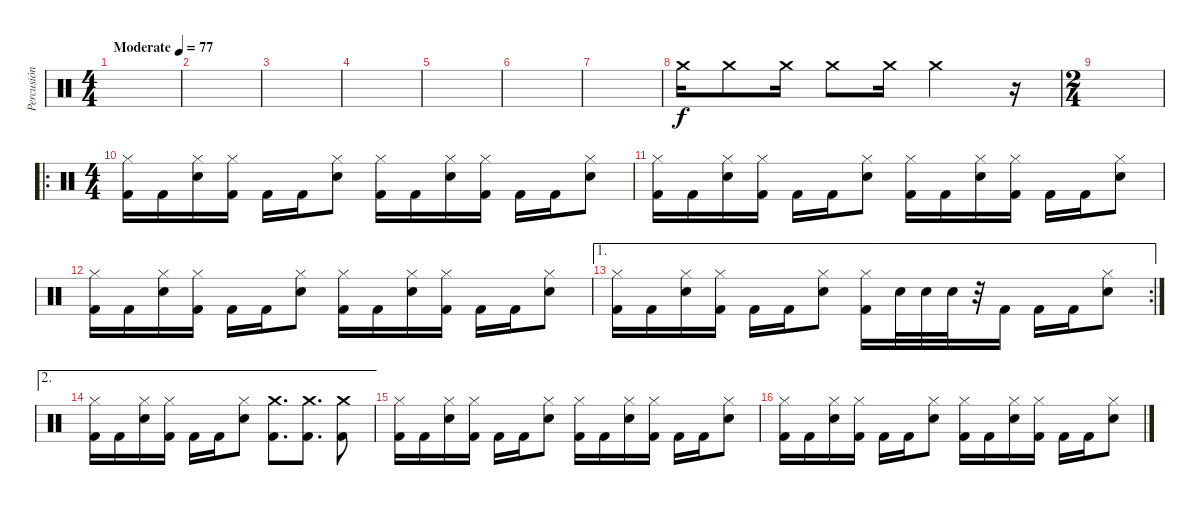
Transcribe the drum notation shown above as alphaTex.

\track ("Percusión" "Percusión") {instrument percussion}
\staff {score}
\articulation defaults
\ts (4 4)
\tempo (77 "Moderate")
\clef neutral
\ks c
|
|
|
|
|
|
|
"Crash medium (hit)".16 "Crash medium (hit)".8 "Crash medium (hit)".16 "Crash medium (hit)".8 "Crash medium (hit)".16 "Crash medium (hit)".2 r.16 |
\ts (2 4)
|
\ro
\ts (4 4)
("Kick (hit) 2" "Hi-Hat (closed)").16 "Kick (hit) 2".16 ("Hi-Hat (closed)" "Electric Snare (hit)").16 ("Kick (hit) 2" "Hi-Hat (closed)").16 "Kick (hit) 2".16 "Kick (hit) 2".16 ("Electric Snare (hit)" "Hi-Hat (closed)").8 ("Kick (hit) 2" "Hi-Hat (closed)").16 "Kick (hit) 2".16 ("Electric Snare (hit)" "Hi-Hat (closed)").16 ("Kick (hit) 2" "Hi-Hat (closed)").16 "Kick (hit) 2".16 "Kick (hit) 2".16 ("Electric Snare (hit)" "Hi-Hat (closed)").8 |
("Kick (hit) 2" "Hi-Hat (closed)").16 "Kick (hit) 2".16 ("Electric Snare (hit)" "Hi-Hat (closed)").16 ("Kick (hit) 2" "Hi-Hat (closed)").16 "Kick (hit) 2".16 "Kick (hit) 2".16 ("Electric Snare (hit)" "Hi-Hat (closed)").8 ("Kick (hit) 2" "Hi-Hat (closed)").16 "Kick (hit) 2".16 ("Electric Snare (hit)" "Hi-Hat (closed)").16 ("Kick (hit) 2" "Hi-Hat (closed)").16 "Kick (hit) 2".16 "Kick (hit) 2".16 ("Electric Snare (hit)" "Hi-Hat (closed)").8 |
("Kick (hit) 2" "Hi-Hat (closed)").16 "Kick (hit) 2".16 ("Electric Snare (hit)" "Hi-Hat (closed)").16 ("Kick (hit) 2" "Hi-Hat (closed)").16 "Kick (hit) 2".16 "Kick (hit) 2".16 ("Electric Snare (hit)" "Hi-Hat (closed)").8 ("Kick (hit) 2" "Hi-Hat (closed)").16 "Kick (hit) 2".16 ("Electric Snare (hit)" "Hi-Hat (closed)").16 ("Kick (hit) 2" "Hi-Hat (closed)").16 "Kick (hit) 2".16 "Kick (hit) 2".16 ("Electric Snare (hit)" "Hi-Hat (closed)").8 |
\ae 1
\rc 2
("Kick (hit) 2" "Hi-Hat (closed)").16 "Kick (hit) 2".16 ("Electric Snare (hit)" "Hi-Hat (closed)").16 ("Kick (hit) 2" "Hi-Hat (closed)").16 "Kick (hit) 2".16 "Kick (hit) 2".16 ("Electric Snare (hit)" "Hi-Hat (closed)").8 ("Kick (hit) 2" "Hi-Hat (closed)").16 "Electric Snare (hit)".32 "Electric Snare (hit)".32 "Electric Snare (hit)".32 r.32 "Kick (hit) 2".16 "Kick (hit) 2".16 "Kick (hit) 2".16 ("Electric Snare (hit)" "Hi-Hat (closed)").8 |
\ae 2
("Kick (hit) 2" "Hi-Hat (closed)").16 "Kick (hit) 2".16 ("Electric Snare (hit)" "Hi-Hat (closed)").16 ("Kick (hit) 2" "Hi-Hat (closed)").16 "Kick (hit) 2".16 "Kick (hit) 2".16 ("Electric Snare (hit)" "Hi-Hat (closed)").8 ("Kick (hit) 2" "Crash medium (hit)").8{d} ("Kick (hit) 2" "Crash medium (hit)").8{d} ("Kick (hit) 2" "Crash medium (hit)").8 |
("Kick (hit) 2" "Hi-Hat (closed)").16 "Kick (hit) 2".16 ("Electric Snare (hit)" "Hi-Hat (closed)").16 ("Kick (hit) 2" "Hi-Hat (closed)").16 "Kick (hit) 2".16 "Kick (hit) 2".16 ("Electric Snare (hit)" "Hi-Hat (closed)").8 ("Kick (hit) 2" "Hi-Hat (closed)").16 "Kick (hit) 2".16 ("Electric Snare (hit)" "Hi-Hat (closed)").16 ("Kick (hit) 2" "Hi-Hat (closed)").16 "Kick (hit) 2".16 "Kick (hit) 2".16 ("Electric Snare (hit)" "Hi-Hat (closed)").8 |
("Kick (hit) 2" "Hi-Hat (closed)").16 "Kick (hit) 2".16 ("Electric Snare (hit)" "Hi-Hat (closed)").16 ("Kick (hit) 2" "Hi-Hat (closed)").16 "Kick (hit) 2".16 "Kick (hit) 2".16 ("Electric Snare (hit)" "Hi-Hat (closed)").8 ("Kick (hit) 2" "Hi-Hat (closed)").16 "Kick (hit) 2".16 ("Electric Snare (hit)" "Hi-Hat (closed)").16 ("Kick (hit) 2" "Hi-Hat (closed)").16 "Kick (hit) 2".16 "Kick (hit) 2".16 ("Electric Snare (hit)" "Hi-Hat (closed)").8
